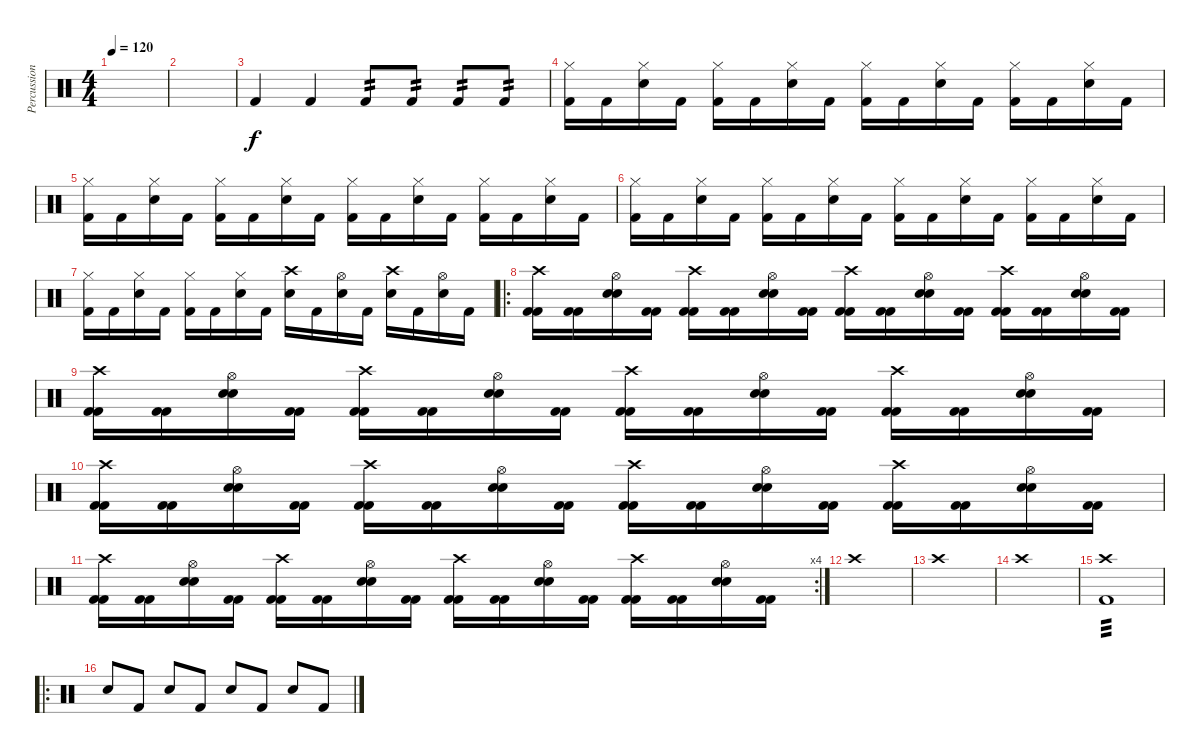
\track ("Percussions" "Percussion") {instrument percussion}
\staff {score}
\articulation defaults
\ts (4 4)
\tempo 120
\clef neutral
\ks c
|
|
"Kick (hit) 2".4 "Kick (hit) 2".4 "Kick (hit) 2".8{tp 2} "Kick (hit) 2".8{tp 2} "Kick (hit) 2".8{tp 2} "Kick (hit) 2".8{tp 2} |
("Hi-Hat (closed)" "Kick (hit) 2").16 "Kick (hit) 2".16 ("Hi-Hat (closed)" "Snare (hit) 2").16 "Kick (hit) 2".16 ("Hi-Hat (closed)" "Kick (hit) 2").16 "Kick (hit) 2".16 ("Hi-Hat (closed)" "Snare (hit) 2").16 "Kick (hit) 2".16 ("Hi-Hat (closed)" "Kick (hit) 2").16 "Kick (hit) 2".16 ("Hi-Hat (closed)" "Snare (hit) 2").16 "Kick (hit) 2".16 ("Hi-Hat (closed)" "Kick (hit) 2").16 "Kick (hit) 2".16 ("Hi-Hat (closed)" "Snare (hit) 2").16 "Kick (hit) 2".16 |
("Hi-Hat (closed)" "Kick (hit) 2").16 "Kick (hit) 2".16 ("Hi-Hat (closed)" "Snare (hit) 2").16 "Kick (hit) 2".16 ("Hi-Hat (closed)" "Kick (hit) 2").16 "Kick (hit) 2".16 ("Hi-Hat (closed)" "Snare (hit) 2").16 "Kick (hit) 2".16 ("Hi-Hat (closed)" "Kick (hit) 2").16 "Kick (hit) 2".16 ("Hi-Hat (closed)" "Snare (hit) 2").16 "Kick (hit) 2".16 ("Hi-Hat (closed)" "Kick (hit) 2").16 "Kick (hit) 2".16 ("Hi-Hat (closed)" "Snare (hit) 2").16 "Kick (hit) 2".16 |
("Hi-Hat (closed)" "Kick (hit) 2").16 "Kick (hit) 2".16 ("Hi-Hat (closed)" "Snare (hit) 2").16 "Kick (hit) 2".16 ("Hi-Hat (closed)" "Kick (hit) 2").16 "Kick (hit) 2".16 ("Hi-Hat (closed)" "Snare (hit) 2").16 "Kick (hit) 2".16 ("Hi-Hat (closed)" "Kick (hit) 2").16 "Kick (hit) 2".16 ("Hi-Hat (closed)" "Snare (hit) 2").16 "Kick (hit) 2".16 ("Hi-Hat (closed)" "Kick (hit) 2").16 "Kick (hit) 2".16 ("Hi-Hat (closed)" "Snare (hit) 2").16 "Kick (hit) 2".16 |
("Hi-Hat (closed)" "Kick (hit) 2").16 "Kick (hit) 2".16 ("Hi-Hat (closed)" "Snare (hit) 2").16 "Kick (hit) 2".16 ("Hi-Hat (closed)" "Kick (hit) 2").16 "Kick (hit) 2".16 ("Hi-Hat (closed)" "Snare (hit) 2").16 "Kick (hit) 2".16 ("Crash high (hit)" "Snare (hit) 2").16 "Kick (hit) 2".16 ("Hi-Hat (open)" "Snare (hit) 2").16 "Kick (hit) 2".16 ("Crash high (hit)" "Snare (hit) 2").16 "Kick (hit) 2".16 ("Hi-Hat (open)" "Snare (hit) 2").16 "Kick (hit) 2".16 |
\ro
("Crash high (hit)" "Kick (hit) 2" "Kick (hit) 2").16 ("Kick (hit) 2" "Kick (hit) 2").16 ("Hi-Hat (open)" "Snare (hit) 2" "Snare (hit) 2").16 ("Kick (hit) 2" "Kick (hit) 2").16 ("Crash high (hit)" "Kick (hit) 2" "Kick (hit) 2").16 ("Kick (hit) 2" "Kick (hit) 2").16 ("Hi-Hat (open)" "Snare (hit) 2" "Snare (hit) 2").16 ("Kick (hit) 2" "Kick (hit) 2").16 ("Crash high (hit)" "Kick (hit) 2" "Kick (hit) 2").16 ("Kick (hit) 2" "Kick (hit) 2").16 ("Hi-Hat (open)" "Snare (hit) 2" "Snare (hit) 2").16 ("Kick (hit) 2" "Kick (hit) 2").16 ("Crash high (hit)" "Kick (hit) 2" "Kick (hit) 2").16 ("Kick (hit) 2" "Kick (hit) 2").16 ("Hi-Hat (open)" "Snare (hit) 2" "Snare (hit) 2").16 ("Kick (hit) 2" "Kick (hit) 2").16 |
("Crash high (hit)" "Kick (hit) 2" "Kick (hit) 2").16 ("Kick (hit) 2" "Kick (hit) 2").16 ("Hi-Hat (open)" "Snare (hit) 2" "Snare (hit) 2").16 ("Kick (hit) 2" "Kick (hit) 2").16 ("Crash high (hit)" "Kick (hit) 2" "Kick (hit) 2").16 ("Kick (hit) 2" "Kick (hit) 2").16 ("Hi-Hat (open)" "Snare (hit) 2" "Snare (hit) 2").16 ("Kick (hit) 2" "Kick (hit) 2").16 ("Crash high (hit)" "Kick (hit) 2" "Kick (hit) 2").16 ("Kick (hit) 2" "Kick (hit) 2").16 ("Hi-Hat (open)" "Snare (hit) 2" "Snare (hit) 2").16 ("Kick (hit) 2" "Kick (hit) 2").16 ("Crash high (hit)" "Kick (hit) 2" "Kick (hit) 2").16 ("Kick (hit) 2" "Kick (hit) 2").16 ("Hi-Hat (open)" "Snare (hit) 2" "Snare (hit) 2").16 ("Kick (hit) 2" "Kick (hit) 2").16 |
("Crash high (hit)" "Kick (hit) 2" "Kick (hit) 2").16 ("Kick (hit) 2" "Kick (hit) 2").16 ("Hi-Hat (open)" "Snare (hit) 2" "Snare (hit) 2").16 ("Kick (hit) 2" "Kick (hit) 2").16 ("Crash high (hit)" "Kick (hit) 2" "Kick (hit) 2").16 ("Kick (hit) 2" "Kick (hit) 2").16 ("Hi-Hat (open)" "Snare (hit) 2" "Snare (hit) 2").16 ("Kick (hit) 2" "Kick (hit) 2").16 ("Crash high (hit)" "Kick (hit) 2" "Kick (hit) 2").16 ("Kick (hit) 2" "Kick (hit) 2").16 ("Hi-Hat (open)" "Snare (hit) 2" "Snare (hit) 2").16 ("Kick (hit) 2" "Kick (hit) 2").16 ("Crash high (hit)" "Kick (hit) 2" "Kick (hit) 2").16 ("Kick (hit) 2" "Kick (hit) 2").16 ("Hi-Hat (open)" "Snare (hit) 2" "Snare (hit) 2").16 ("Kick (hit) 2" "Kick (hit) 2").16 |
\rc 4
("Crash high (hit)" "Kick (hit) 2" "Kick (hit) 2").16 ("Kick (hit) 2" "Kick (hit) 2").16 ("Hi-Hat (open)" "Snare (hit) 2" "Snare (hit) 2").16 ("Kick (hit) 2" "Kick (hit) 2").16 ("Crash high (hit)" "Kick (hit) 2" "Kick (hit) 2").16 ("Kick (hit) 2" "Kick (hit) 2").16 ("Hi-Hat (open)" "Snare (hit) 2" "Snare (hit) 2").16 ("Kick (hit) 2" "Kick (hit) 2").16 ("Crash high (hit)" "Kick (hit) 2" "Kick (hit) 2").16 ("Kick (hit) 2" "Kick (hit) 2").16 ("Hi-Hat (open)" "Snare (hit) 2" "Snare (hit) 2").16 ("Kick (hit) 2" "Kick (hit) 2").16 ("Crash high (hit)" "Kick (hit) 2" "Kick (hit) 2").16 ("Kick (hit) 2" "Kick (hit) 2").16 ("Hi-Hat (open)" "Snare (hit) 2" "Snare (hit) 2").16 ("Kick (hit) 2" "Kick (hit) 2").16 |
"Crash high (hit)".1 |
"Crash high (hit)".1 |
"Crash high (hit)".1 |
("Kick (hit) 2" "Crash high (hit)").1{tp 3} |
\ro "Snare (hit) 2".8 "Kick (hit) 2".8 "Snare (hit) 2".8 "Kick (hit) 2".8 "Snare (hit) 2".8 "Kick (hit) 2".8 "Snare (hit) 2".8 "Kick (hit) 2".8
